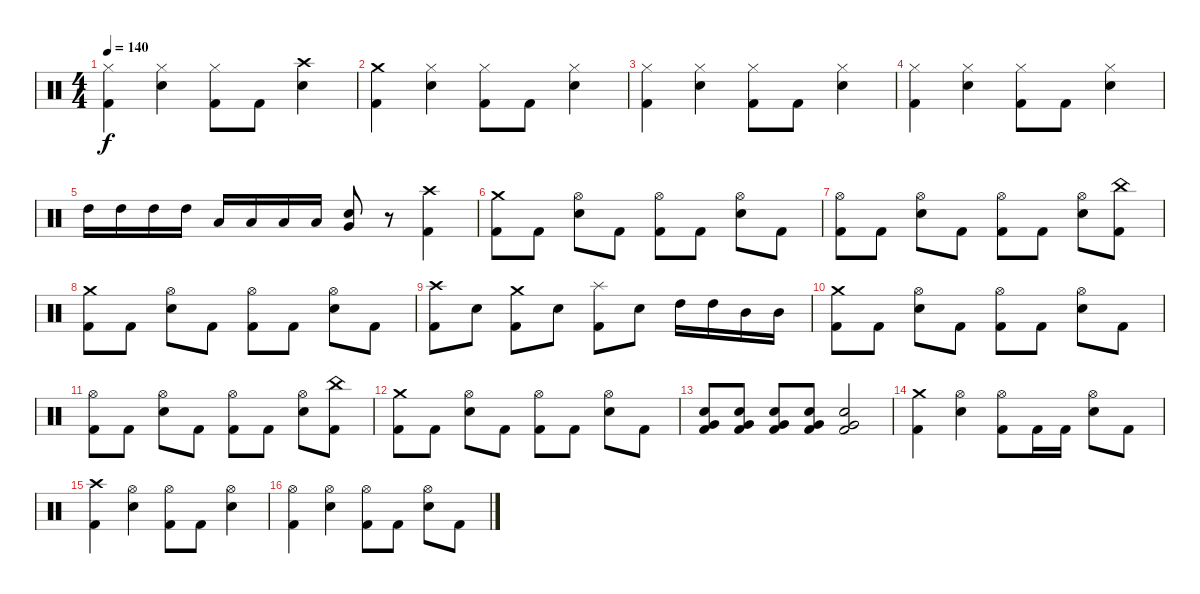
\track "" {instrument percussion}
\staff {score}
\articulation defaults
\ts (4 4)
\tempo 140
\clef neutral
\ks c
("Hi-Hat (closed)" "Kick (hit) 2").4{dy f} ("Hi-Hat (closed)" "Electric Snare (hit)").4 ("Hi-Hat (closed)" "Kick (hit) 2").8 "Kick (hit) 2".8 ("Crash high (hit)" "Electric Snare (hit)").4 |
("Crash medium (hit)" "Kick (hit) 2").4 ("Hi-Hat (closed)" "Electric Snare (hit)").4 ("Hi-Hat (closed)" "Kick (hit) 2").8 "Kick (hit) 2".8 ("Hi-Hat (closed)" "Electric Snare (hit)").4 |
("Hi-Hat (closed)" "Kick (hit) 2").4 ("Hi-Hat (closed)" "Electric Snare (hit)").4 ("Hi-Hat (closed)" "Kick (hit) 2").8 "Kick (hit) 2".8 ("Hi-Hat (closed)" "Electric Snare (hit)").4 |
("Hi-Hat (closed)" "Kick (hit) 2").4 ("Hi-Hat (closed)" "Electric Snare (hit)").4 ("Hi-Hat (closed)" "Kick (hit) 2").8 "Kick (hit) 2".8 ("Hi-Hat (closed)" "Electric Snare (hit)").4 |
"High Tom (hit)".16 "High Tom (hit)".16 "High Tom (hit)".16 "High Tom (hit)".16 "Low Tom (hit)".16 "Low Tom (hit)".16 "Low Tom (hit)".16 "Low Tom (hit)".16 ("Electric Snare (hit)" "Very Low Tom (hit)").8 r.8 ("Crash high (hit)" "Kick (hit) 2").4 |
("Crash medium (hit)" "Kick (hit) 2").8 "Kick (hit) 2".8 ("Hi-Hat (open)" "Electric Snare (hit)").8 "Kick (hit) 2".8 ("Hi-Hat (open)" "Kick (hit) 2").8 "Kick (hit) 2".8 ("Hi-Hat (open)" "Electric Snare (hit)").8 "Kick (hit) 2".8 |
("Hi-Hat (open)" "Kick (hit) 2").8 "Kick (hit) 2".8 ("Hi-Hat (open)" "Electric Snare (hit)").8 "Kick (hit) 2".8 ("Hi-Hat (open)" "Kick (hit) 2").8 "Kick (hit) 2".8 ("Hi-Hat (open)" "Electric Snare (hit)").8 ("China (hit)" "Kick (hit) 2").8 |
("Crash medium (hit)" "Kick (hit) 2").8 "Kick (hit) 2".8 ("Hi-Hat (open)" "Electric Snare (hit)").8 "Kick (hit) 2".8 ("Hi-Hat (open)" "Kick (hit) 2").8 "Kick (hit) 2".8 ("Hi-Hat (open)" "Electric Snare (hit)").8 "Kick (hit) 2".8 |
("Crash high (hit)" "Kick (hit) 2").8 "Electric Snare (hit)".8 ("Crash medium (hit)" "Kick (hit) 2").8 "Electric Snare (hit)".8 ("Splash (hit)" "Kick (hit) 2").8 "Electric Snare (hit)".8 "High Tom (hit)".16 "High Tom (hit)".16 "Mid Tom (hit)".16 "Mid Tom (hit)".16 |
("Crash medium (hit)" "Kick (hit) 2").8 "Kick (hit) 2".8 ("Hi-Hat (open)" "Electric Snare (hit)").8 "Kick (hit) 2".8 ("Hi-Hat (open)" "Kick (hit) 2").8 "Kick (hit) 2".8 ("Hi-Hat (open)" "Electric Snare (hit)").8 "Kick (hit) 2".8 |
("Hi-Hat (open)" "Kick (hit) 2").8 "Kick (hit) 2".8 ("Hi-Hat (open)" "Electric Snare (hit)").8 "Kick (hit) 2".8 ("Hi-Hat (open)" "Kick (hit) 2").8 "Kick (hit) 2".8 ("Hi-Hat (open)" "Electric Snare (hit)").8 ("China (hit)" "Kick (hit) 2").8 |
("Crash medium (hit)" "Kick (hit) 2").8 "Kick (hit) 2".8 ("Hi-Hat (open)" "Electric Snare (hit)").8 "Kick (hit) 2".8 ("Hi-Hat (open)" "Kick (hit) 2").8 "Kick (hit) 2".8 ("Hi-Hat (open)" "Electric Snare (hit)").8 "Kick (hit) 2".8 |
("Electric Snare (hit)" "Very Low Tom (hit)" "Kick (hit) 2").8 ("Electric Snare (hit)" "Very Low Tom (hit)" "Kick (hit) 2").8 ("Electric Snare (hit)" "Very Low Tom (hit)" "Kick (hit) 2").8 ("Electric Snare (hit)" "Very Low Tom (hit)" "Kick (hit) 2").8 ("Electric Snare (hit)" "Very Low Tom (hit)" "Kick (hit) 2").2 |
("Crash medium (hit)" "Kick (hit) 2").4 ("Hi-Hat (open)" "Electric Snare (hit)").4 ("Hi-Hat (open)" "Kick (hit) 2").8 "Kick (hit) 2".16 "Kick (hit) 2".16 ("Hi-Hat (open)" "Electric Snare (hit)").8 "Kick (hit) 2".8 |
("Crash high (hit)" "Kick (hit) 2").4 ("Hi-Hat (open)" "Electric Snare (hit)").4 ("Hi-Hat (open)" "Kick (hit) 2").8 "Kick (hit) 2".8 ("Hi-Hat (open)" "Electric Snare (hit)").4 |
("Hi-Hat (open)" "Kick (hit) 2").4 ("Hi-Hat (open)" "Electric Snare (hit)").4 ("Hi-Hat (open)" "Kick (hit) 2").8 "Kick (hit) 2".8 ("Hi-Hat (open)" "Electric Snare (hit)").8 "Kick (hit) 2".8
